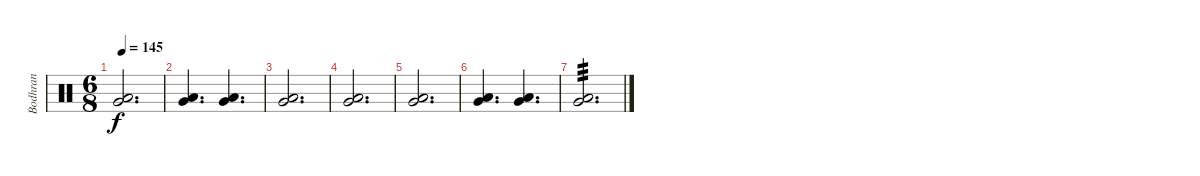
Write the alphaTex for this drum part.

\track ("Bodhran" "Bodhran") {instrument percussion}
\staff {score}
\articulation defaults
\ts (6 8)
\tempo 145
\clef neutral
\ks c
("Very Low Tom (hit)" "Low Floor Tom (hit)").2{d dy f} |
("Very Low Tom (hit)" "Low Floor Tom (hit)").4{d} ("Very Low Tom (hit)" "Low Floor Tom (hit)").4{d} |
("Very Low Tom (hit)" "Low Floor Tom (hit)").2{d} |
("Very Low Tom (hit)" "Low Floor Tom (hit)").2{d} |
("Very Low Tom (hit)" "Low Floor Tom (hit)").2{d} |
("Very Low Tom (hit)" "Low Floor Tom (hit)").4{d} ("Very Low Tom (hit)" "Low Floor Tom (hit)").4{d} |
("Very Low Tom (hit)" "Low Floor Tom (hit)").2{d tp 3}
